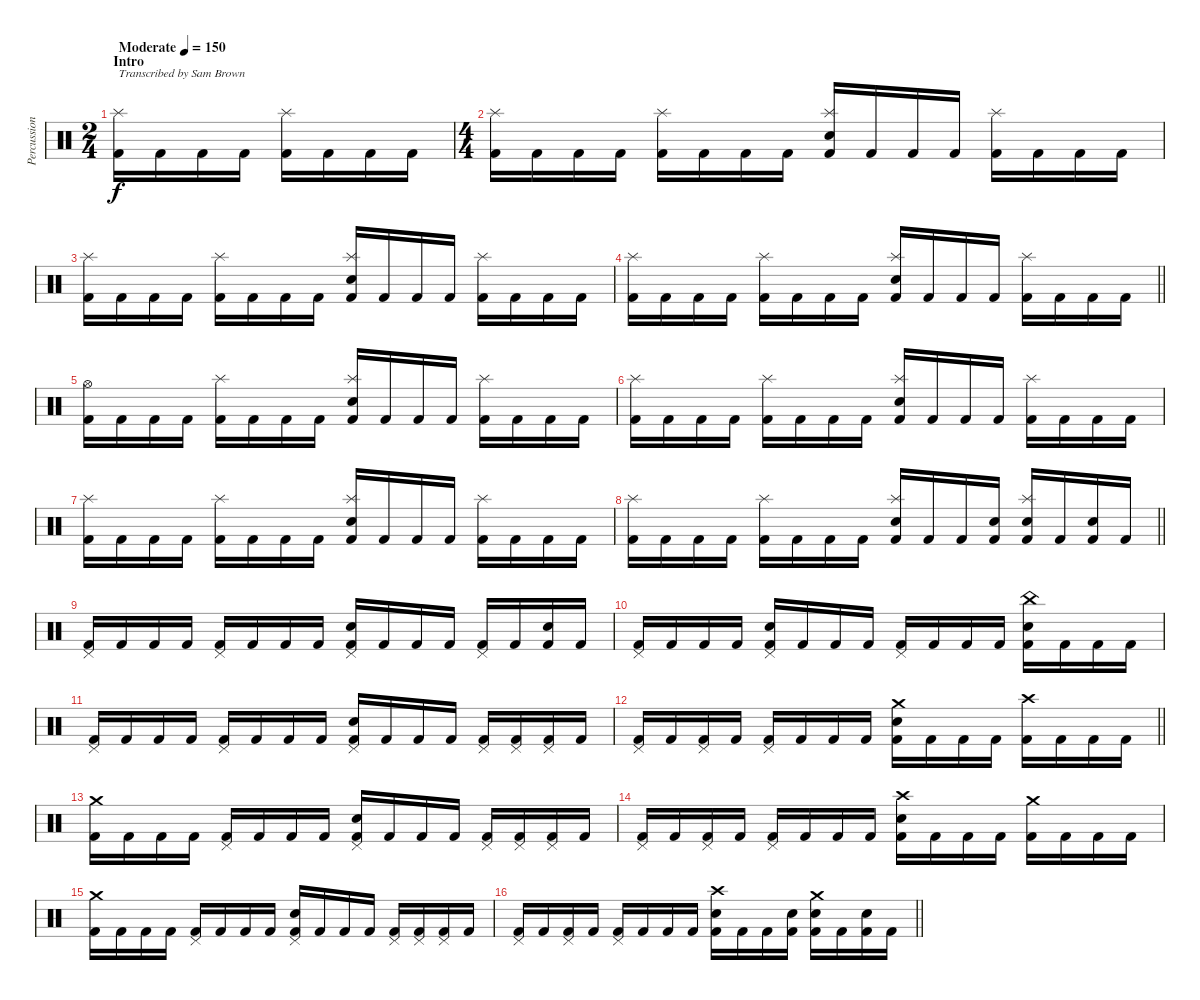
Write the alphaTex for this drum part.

\track ("Percussion" "Percussion") {instrument percussion}
\staff {score}
\articulation defaults
\ts (2 4)
\section ("" "Intro")
\tempo (150 "Moderate")
\clef neutral
\ks c
("Kick (hit) 2" "Splash (hit)").16{txt "Transcribed by Sam Brown" dy f volume 2} "Kick (hit) 2".16 "Kick (hit) 2".16 "Kick (hit) 2".16 ("Kick (hit) 2" "Splash (hit)").16 "Kick (hit) 2".16 "Kick (hit) 2".16 "Kick (hit) 2".16 |
\ts (4 4)
("Kick (hit) 2" "Splash (hit)").16{volume 4} "Kick (hit) 2".16 "Kick (hit) 2".16 "Kick (hit) 2".16 ("Kick (hit) 2" "Splash (hit)").16 "Kick (hit) 2".16 "Kick (hit) 2".16 "Kick (hit) 2".16 ("Kick (hit) 2" "Snare (hit) 2" "Splash (hit)").16 "Kick (hit) 2".16 "Kick (hit) 2".16 "Kick (hit) 2".16 ("Kick (hit) 2" "Splash (hit)").16 "Kick (hit) 2".16 "Kick (hit) 2".16 "Kick (hit) 2".16 |
("Kick (hit) 2" "Splash (hit)").16 "Kick (hit) 2".16 "Kick (hit) 2".16 "Kick (hit) 2".16 ("Kick (hit) 2" "Splash (hit)").16 "Kick (hit) 2".16 "Kick (hit) 2".16 "Kick (hit) 2".16 ("Kick (hit) 2" "Snare (hit) 2" "Splash (hit)").16 "Kick (hit) 2".16 "Kick (hit) 2".16 "Kick (hit) 2".16 ("Kick (hit) 2" "Splash (hit)").16 "Kick (hit) 2".16 "Kick (hit) 2".16 "Kick (hit) 2".16 |
\barLineRight lightlight
("Kick (hit) 2" "Splash (hit)").16 "Kick (hit) 2".16 "Kick (hit) 2".16 "Kick (hit) 2".16 ("Kick (hit) 2" "Splash (hit)").16 "Kick (hit) 2".16 "Kick (hit) 2".16 "Kick (hit) 2".16 ("Kick (hit) 2" "Snare (hit) 2" "Splash (hit)").16 "Kick (hit) 2".16 "Kick (hit) 2".16 "Kick (hit) 2".16 ("Kick (hit) 2" "Splash (hit)").16 "Kick (hit) 2".16 "Kick (hit) 2".16 "Kick (hit) 2".16 |
\section ("" "")
("Kick (hit) 2" "Hi-Hat (open)").16{volume 6} "Kick (hit) 2".16 "Kick (hit) 2".16 "Kick (hit) 2".16 ("Kick (hit) 2" "Splash (hit)").16 "Kick (hit) 2".16 "Kick (hit) 2".16 "Kick (hit) 2".16 ("Kick (hit) 2" "Snare (hit) 2" "Splash (hit)").16 "Kick (hit) 2".16 "Kick (hit) 2".16 "Kick (hit) 2".16 ("Kick (hit) 2" "Splash (hit)").16 "Kick (hit) 2".16 "Kick (hit) 2".16 "Kick (hit) 2".16 |
("Kick (hit) 2" "Splash (hit)").16 "Kick (hit) 2".16 "Kick (hit) 2".16 "Kick (hit) 2".16 ("Kick (hit) 2" "Splash (hit)").16 "Kick (hit) 2".16 "Kick (hit) 2".16 "Kick (hit) 2".16 ("Kick (hit) 2" "Snare (hit) 2" "Splash (hit)").16 "Kick (hit) 2".16 "Kick (hit) 2".16 "Kick (hit) 2".16 ("Kick (hit) 2" "Splash (hit)").16 "Kick (hit) 2".16 "Kick (hit) 2".16 "Kick (hit) 2".16 |
("Kick (hit) 2" "Splash (hit)").16 "Kick (hit) 2".16 "Kick (hit) 2".16 "Kick (hit) 2".16 ("Kick (hit) 2" "Splash (hit)").16 "Kick (hit) 2".16 "Kick (hit) 2".16 "Kick (hit) 2".16 ("Kick (hit) 2" "Snare (hit) 2" "Splash (hit)").16 "Kick (hit) 2".16 "Kick (hit) 2".16 "Kick (hit) 2".16 ("Kick (hit) 2" "Splash (hit)").16 "Kick (hit) 2".16 "Kick (hit) 2".16 "Kick (hit) 2".16 |
\barLineRight lightlight
("Kick (hit) 2" "Splash (hit)").16 "Kick (hit) 2".16 "Kick (hit) 2".16 "Kick (hit) 2".16 ("Kick (hit) 2" "Splash (hit)").16 "Kick (hit) 2".16 "Kick (hit) 2".16 "Kick (hit) 2".16 ("Kick (hit) 2" "Snare (hit) 2" "Splash (hit)").16 "Kick (hit) 2".16 "Kick (hit) 2".16 ("Kick (hit) 2" "Snare (hit) 2").16 ("Kick (hit) 2" "Snare (hit) 2" "Splash (hit)").16 "Kick (hit) 2".16 ("Kick (hit) 2" "Snare (hit) 2").16 "Kick (hit) 2".16 |
\section ("" "")
("Kick (hit) 2" "Pedal Hi-Hat (hit)").16{volume 10} "Kick (hit) 2".16 "Kick (hit) 2".16 "Kick (hit) 2".16 ("Kick (hit) 2" "Pedal Hi-Hat (hit)").16 "Kick (hit) 2".16 "Kick (hit) 2".16 "Kick (hit) 2".16 ("Kick (hit) 2" "Snare (hit) 2" "Pedal Hi-Hat (hit)").16 "Kick (hit) 2".16 "Kick (hit) 2".16 "Kick (hit) 2".16 ("Kick (hit) 2" "Pedal Hi-Hat (hit)").16 "Kick (hit) 2".16 ("Kick (hit) 2" "Snare (hit) 2").16 "Kick (hit) 2".16 |
("Kick (hit) 2" "Pedal Hi-Hat (hit)").16 "Kick (hit) 2".16 "Kick (hit) 2".16 "Kick (hit) 2".16 ("Kick (hit) 2" "Snare (hit) 2" "Pedal Hi-Hat (hit)").16 "Kick (hit) 2".16 "Kick (hit) 2".16 "Kick (hit) 2".16 ("Kick (hit) 2" "Pedal Hi-Hat (hit)").16 "Kick (hit) 2".16 "Kick (hit) 2".16 "Kick (hit) 2".16 ("Kick (hit) 2" "Snare (hit) 2" "China (hit)").16 "Kick (hit) 2".16 "Kick (hit) 2".16 "Kick (hit) 2".16 |
("Kick (hit) 2" "Pedal Hi-Hat (hit)").16 "Kick (hit) 2".16 "Kick (hit) 2".16 "Kick (hit) 2".16 ("Kick (hit) 2" "Pedal Hi-Hat (hit)").16 "Kick (hit) 2".16 "Kick (hit) 2".16 "Kick (hit) 2".16 ("Kick (hit) 2" "Snare (hit) 2" "Pedal Hi-Hat (hit)").16 "Kick (hit) 2".16 "Kick (hit) 2".16 "Kick (hit) 2".16 ("Kick (hit) 2" "Pedal Hi-Hat (hit)").16 ("Kick (hit) 2" "Pedal Hi-Hat (hit)").16 ("Kick (hit) 2" "Pedal Hi-Hat (hit)").16 "Kick (hit) 2".16 |
\barLineRight lightlight
("Kick (hit) 2" "Pedal Hi-Hat (hit)").16 "Kick (hit) 2".16 ("Kick (hit) 2" "Pedal Hi-Hat (hit)").16 "Kick (hit) 2".16 ("Kick (hit) 2" "Pedal Hi-Hat (hit)").16 "Kick (hit) 2".16 "Kick (hit) 2".16 "Kick (hit) 2".16 ("Kick (hit) 2" "Snare (hit) 2" "Crash medium (hit)").16 "Kick (hit) 2".16 "Kick (hit) 2".16 "Kick (hit) 2".16 ("Kick (hit) 2" "Crash high (hit)").16 "Kick (hit) 2".16 "Kick (hit) 2".16 "Kick (hit) 2".16 |
\section ("" "")
("Kick (hit) 2" "Crash medium (hit)").16{volume 12} "Kick (hit) 2".16 "Kick (hit) 2".16 "Kick (hit) 2".16 ("Kick (hit) 2" "Pedal Hi-Hat (hit)").16 "Kick (hit) 2".16 "Kick (hit) 2".16 "Kick (hit) 2".16 ("Kick (hit) 2" "Snare (hit) 2" "Pedal Hi-Hat (hit)").16 "Kick (hit) 2".16 "Kick (hit) 2".16 "Kick (hit) 2".16 ("Kick (hit) 2" "Pedal Hi-Hat (hit)").16 ("Kick (hit) 2" "Pedal Hi-Hat (hit)").16 ("Kick (hit) 2" "Pedal Hi-Hat (hit)").16 "Kick (hit) 2".16 |
("Kick (hit) 2" "Pedal Hi-Hat (hit)").16 "Kick (hit) 2".16 ("Kick (hit) 2" "Pedal Hi-Hat (hit)").16 "Kick (hit) 2".16 ("Kick (hit) 2" "Pedal Hi-Hat (hit)").16 "Kick (hit) 2".16 "Kick (hit) 2".16 "Kick (hit) 2".16 ("Kick (hit) 2" "Snare (hit) 2" "Crash high (hit)").16 "Kick (hit) 2".16 "Kick (hit) 2".16 "Kick (hit) 2".16 ("Kick (hit) 2" "Crash medium (hit)").16 "Kick (hit) 2".16 "Kick (hit) 2".16 "Kick (hit) 2".16 |
("Kick (hit) 2" "Crash medium (hit)").16 "Kick (hit) 2".16 "Kick (hit) 2".16 "Kick (hit) 2".16 ("Kick (hit) 2" "Pedal Hi-Hat (hit)").16 "Kick (hit) 2".16 "Kick (hit) 2".16 "Kick (hit) 2".16 ("Kick (hit) 2" "Snare (hit) 2" "Pedal Hi-Hat (hit)").16 "Kick (hit) 2".16 "Kick (hit) 2".16 "Kick (hit) 2".16 ("Kick (hit) 2" "Pedal Hi-Hat (hit)").16 ("Kick (hit) 2" "Pedal Hi-Hat (hit)").16 ("Kick (hit) 2" "Pedal Hi-Hat (hit)").16 "Kick (hit) 2".16 |
\barLineRight lightlight
("Kick (hit) 2" "Pedal Hi-Hat (hit)").16 "Kick (hit) 2".16 ("Kick (hit) 2" "Pedal Hi-Hat (hit)").16 "Kick (hit) 2".16 ("Kick (hit) 2" "Pedal Hi-Hat (hit)").16 "Kick (hit) 2".16 "Kick (hit) 2".16 "Kick (hit) 2".16 ("Kick (hit) 2" "Snare (hit) 2" "Crash high (hit)").16 "Kick (hit) 2".16 "Kick (hit) 2".16 ("Kick (hit) 2" "Snare (hit) 2").16 ("Kick (hit) 2" "Snare (hit) 2" "Crash medium (hit)").16 "Kick (hit) 2".16 ("Kick (hit) 2" "Snare (hit) 2").16 "Kick (hit) 2".16
